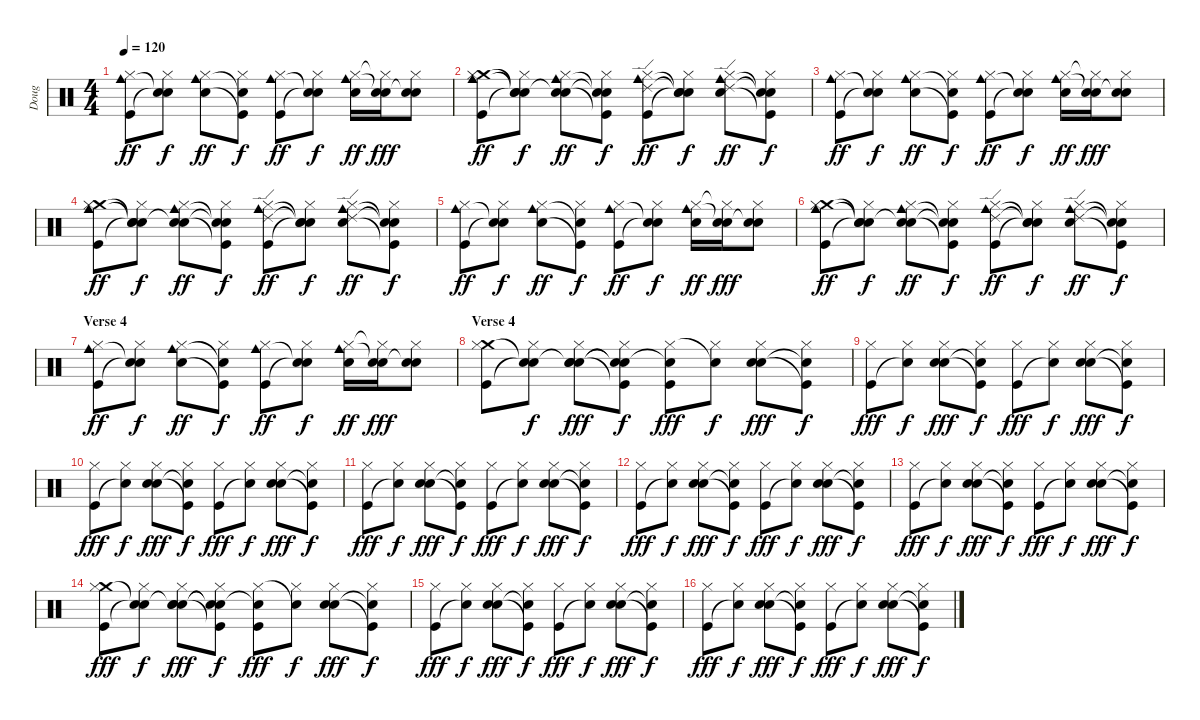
\track ("Doug" "Doug") {instrument percussion}
\staff {score}
\articulation defaults
\ts (4 4)
\tempo 120
\clef neutral
\ks c
("Hi-Hat (closed)" "Kick (hit)" "Cowbell medium (hit)").8{dy ff} ("Hi-Hat (closed)" "Snare (hit)"{t} "Snare (hit)"{t}).8{dy f} ("Hi-Hat (closed)" "Snare (hit) 2" "Cowbell medium (hit)").8{dy ff} ("Hi-Hat (closed)" "Kick (hit)"{t} "Snare (hit)"{t}).8{dy f} ("Hi-Hat (closed)" "Kick (hit)" "Cowbell medium (hit)").8{dy ff} ("Hi-Hat (closed)" "Snare (hit)"{t} "Snare (hit)"{t}).8{dy f} ("Hi-Hat (closed)" "Snare (hit) 2" "Cowbell medium (hit)").16{dy ff} ("Hi-Hat (closed)"{t} "Snare (hit) 2" "Snare (hit)"{t}).16{dy fff} ("Hi-Hat (closed)" "Snare (hit) 2" "Snare (hit)"{t}).8 |
("Crash medium (hit)" "Hi-Hat (closed)" "Kick (hit)" "Cowbell medium (hit)").8{dy ff} ("Snare (hit)"{t} "Hi-Hat (closed)" "Snare (hit)"{t} "Snare (hit)"{t}).8{dy f} ("Snare (hit)"{t} "Hi-Hat (closed)" "Snare (hit) 2" "Cowbell medium (hit)").8{dy ff} ("Snare (hit)"{t} "Hi-Hat (closed)" "Kick (hit)"{t} "Snare (hit)"{t}).8{dy f} ("Ride (edge) 2" "Hi-Hat (closed)" "Kick (hit)" "Cowbell medium (hit)").8{dy ff} ("Snare (hit)"{t} "Hi-Hat (closed)" "Snare (hit)"{t} "Snare (hit)"{t}).8{dy f} ("Ride (edge) 2" "Hi-Hat (closed)" "Snare (hit) 2" "Cowbell medium (hit)").8{dy ff} ("Snare (hit)"{t} "Hi-Hat (closed)" "Kick (hit)"{t} "Snare (hit)"{t}).8{dy f} |
("Hi-Hat (closed)" "Kick (hit)" "Cowbell medium (hit)").8{dy ff} ("Hi-Hat (closed)" "Snare (hit)"{t} "Snare (hit)"{t}).8{dy f} ("Hi-Hat (closed)" "Snare (hit) 2" "Cowbell medium (hit)").8{dy ff} ("Hi-Hat (closed)" "Kick (hit)"{t} "Snare (hit)"{t}).8{dy f} ("Hi-Hat (closed)" "Kick (hit)" "Cowbell medium (hit)").8{dy ff} ("Hi-Hat (closed)" "Snare (hit)"{t} "Snare (hit)"{t}).8{dy f} ("Hi-Hat (closed)" "Snare (hit) 2" "Cowbell medium (hit)").16{dy ff} ("Hi-Hat (closed)"{t} "Snare (hit) 2" "Snare (hit)"{t}).16{dy fff} ("Hi-Hat (closed)" "Snare (hit) 2" "Snare (hit)"{t}).8 |
("Crash medium (hit)" "Hi-Hat (closed)" "Kick (hit)" "Cowbell medium (hit)").8{dy ff} ("Snare (hit)"{t} "Hi-Hat (closed)" "Snare (hit)"{t} "Snare (hit)"{t}).8{dy f} ("Snare (hit)"{t} "Hi-Hat (closed)" "Snare (hit) 2" "Cowbell medium (hit)").8{dy ff} ("Snare (hit)"{t} "Hi-Hat (closed)" "Kick (hit)"{t} "Snare (hit)"{t}).8{dy f} ("Ride (edge) 2" "Hi-Hat (closed)" "Kick (hit)" "Cowbell medium (hit)").8{dy ff} ("Snare (hit)"{t} "Hi-Hat (closed)" "Snare (hit)"{t} "Snare (hit)"{t}).8{dy f} ("Ride (edge) 2" "Hi-Hat (closed)" "Snare (hit) 2" "Cowbell medium (hit)").8{dy ff} ("Snare (hit)"{t} "Hi-Hat (closed)" "Kick (hit)"{t} "Snare (hit)"{t}).8{dy f} |
("Hi-Hat (closed)" "Kick (hit)" "Cowbell medium (hit)").8{dy ff} ("Hi-Hat (closed)" "Snare (hit)"{t} "Snare (hit)"{t}).8{dy f} ("Hi-Hat (closed)" "Snare (hit) 2" "Cowbell medium (hit)").8{dy ff} ("Hi-Hat (closed)" "Kick (hit)"{t} "Snare (hit)"{t}).8{dy f} ("Hi-Hat (closed)" "Kick (hit)" "Cowbell medium (hit)").8{dy ff} ("Hi-Hat (closed)" "Snare (hit)"{t} "Snare (hit)"{t}).8{dy f} ("Hi-Hat (closed)" "Snare (hit) 2" "Cowbell medium (hit)").16{dy ff} ("Hi-Hat (closed)"{t} "Snare (hit) 2" "Snare (hit)"{t}).16{dy fff} ("Hi-Hat (closed)" "Snare (hit) 2" "Snare (hit)"{t}).8 |
("Crash medium (hit)" "Hi-Hat (closed)" "Kick (hit)" "Cowbell medium (hit)").8{dy ff} ("Snare (hit)"{t} "Hi-Hat (closed)" "Snare (hit)"{t} "Snare (hit)"{t}).8{dy f} ("Snare (hit)"{t} "Hi-Hat (closed)" "Snare (hit) 2" "Cowbell medium (hit)").8{dy ff} ("Snare (hit)"{t} "Hi-Hat (closed)" "Kick (hit)"{t} "Snare (hit)"{t}).8{dy f} ("Ride (edge) 2" "Hi-Hat (closed)" "Kick (hit)" "Cowbell medium (hit)").8{dy ff} ("Snare (hit)"{t} "Hi-Hat (closed)" "Snare (hit)"{t} "Snare (hit)"{t}).8{dy f} ("Ride (edge) 2" "Hi-Hat (closed)" "Snare (hit) 2" "Cowbell medium (hit)").8{dy ff} ("Snare (hit)"{t} "Hi-Hat (closed)" "Kick (hit)"{t} "Snare (hit)"{t}).8{dy f} |
\section ("" "Verse 4")
("Hi-Hat (closed)" "Kick (hit)" "Cowbell medium (hit)").8{dy ff} ("Hi-Hat (closed)" "Snare (hit)"{t} "Snare (hit)"{t}).8{dy f} ("Hi-Hat (closed)" "Snare (hit) 2" "Cowbell medium (hit)").8{dy ff} ("Hi-Hat (closed)" "Kick (hit)"{t} "Snare (hit)"{t}).8{dy f} ("Hi-Hat (closed)" "Kick (hit)" "Cowbell medium (hit)").8{dy ff} ("Hi-Hat (closed)" "Snare (hit)"{t} "Snare (hit)"{t}).8{dy f} ("Hi-Hat (closed)" "Snare (hit) 2" "Cowbell medium (hit)").16{dy ff} ("Hi-Hat (closed)"{t} "Snare (hit) 2" "Snare (hit)"{t}).16{dy fff} ("Hi-Hat (closed)" "Snare (hit) 2" "Snare (hit)"{t}).8 |
\section ("" "Verse 4")
("Crash medium (hit)" "Hi-Hat (closed)" "Kick (hit)").8 ("Snare (hit)"{t} "Hi-Hat (closed)" "Snare (hit)"{t}).8{dy f} ("Snare (hit)"{t} "Hi-Hat (closed)" "Snare (hit) 2" "Hand Clap (hit)").8{dy fff} ("Snare (hit)"{t} "Hi-Hat (closed)" "Kick (hit)"{t} "Snare (hit)"{t}).8{dy f} ("Snare (hit)"{t} "Hi-Hat (closed)" "Kick (hit)").8{dy fff} ("Hi-Hat (closed)" "Snare (hit)"{t}).8{dy f} ("Hi-Hat (closed)" "Snare (hit) 2" "Hand Clap (hit)").8{dy fff} ("Hi-Hat (closed)" "Kick (hit)"{t} "Snare (hit)"{t}).8{dy f} |
("Hi-Hat (closed)" "Kick (hit)").8{dy fff} ("Hi-Hat (closed)" "Snare (hit)"{t}).8{dy f} ("Hand Clap (hit)" "Hi-Hat (closed)" "Snare (hit) 2").8{dy fff} ("Snare (hit)"{t} "Hi-Hat (closed)" "Kick (hit)"{t}).8{dy f} ("Hi-Hat (closed)" "Kick (hit)").8{dy fff} ("Hi-Hat (closed)" "Snare (hit)"{t}).8{dy f} ("Hand Clap (hit)" "Hi-Hat (closed)" "Snare (hit) 2").8{dy fff} ("Snare (hit)"{t} "Hi-Hat (closed)" "Kick (hit)"{t}).8{dy f} |
("Hi-Hat (closed)" "Kick (hit)").8{dy fff} ("Hi-Hat (closed)" "Snare (hit)"{t}).8{dy f} ("Hand Clap (hit)" "Hi-Hat (closed)" "Snare (hit) 2").8{dy fff} ("Snare (hit)"{t} "Hi-Hat (closed)" "Kick (hit)"{t}).8{dy f} ("Hi-Hat (closed)" "Kick (hit)").8{dy fff} ("Hi-Hat (closed)" "Snare (hit)"{t}).8{dy f} ("Hand Clap (hit)" "Hi-Hat (closed)" "Snare (hit) 2").8{dy fff} ("Snare (hit)"{t} "Hi-Hat (closed)" "Kick (hit)"{t}).8{dy f} |
("Hi-Hat (closed)" "Kick (hit)").8{dy fff} ("Hi-Hat (closed)" "Snare (hit)"{t}).8{dy f} ("Hand Clap (hit)" "Hi-Hat (closed)" "Snare (hit) 2").8{dy fff} ("Snare (hit)"{t} "Hi-Hat (closed)" "Kick (hit)"{t}).8{dy f} ("Hi-Hat (closed)" "Kick (hit)").8{dy fff} ("Hi-Hat (closed)" "Snare (hit)"{t}).8{dy f} ("Hand Clap (hit)" "Hi-Hat (closed)" "Snare (hit) 2").8{dy fff} ("Snare (hit)"{t} "Hi-Hat (closed)" "Kick (hit)"{t}).8{dy f} |
("Hi-Hat (closed)" "Kick (hit)").8{dy fff} ("Hi-Hat (closed)" "Snare (hit)"{t}).8{dy f} ("Hand Clap (hit)" "Hi-Hat (closed)" "Snare (hit) 2").8{dy fff} ("Snare (hit)"{t} "Hi-Hat (closed)" "Kick (hit)"{t}).8{dy f} ("Hi-Hat (closed)" "Kick (hit)").8{dy fff} ("Hi-Hat (closed)" "Snare (hit)"{t}).8{dy f} ("Hand Clap (hit)" "Hi-Hat (closed)" "Snare (hit) 2").8{dy fff} ("Snare (hit)"{t} "Hi-Hat (closed)" "Kick (hit)"{t}).8{dy f} |
("Hi-Hat (closed)" "Kick (hit)").8{dy fff} ("Hi-Hat (closed)" "Snare (hit)"{t}).8{dy f} ("Hand Clap (hit)" "Hi-Hat (closed)" "Snare (hit) 2").8{dy fff} ("Snare (hit)"{t} "Hi-Hat (closed)" "Kick (hit)"{t}).8{dy f} ("Hi-Hat (closed)" "Kick (hit)").8{dy fff} ("Hi-Hat (closed)" "Snare (hit)"{t}).8{dy f} ("Hand Clap (hit)" "Hi-Hat (closed)" "Snare (hit) 2").8{dy fff} ("Snare (hit)"{t} "Hi-Hat (closed)" "Kick (hit)"{t}).8{dy f} |
("Crash medium (hit)" "Hi-Hat (closed)" "Kick (hit)").8{dy fff} ("Snare (hit)"{t} "Hi-Hat (closed)" "Snare (hit)"{t}).8{dy f} ("Snare (hit)"{t} "Hi-Hat (closed)" "Snare (hit) 2" "Hand Clap (hit)").8{dy fff} ("Snare (hit)"{t} "Hi-Hat (closed)" "Kick (hit)"{t} "Snare (hit)"{t}).8{dy f} ("Snare (hit)"{t} "Hi-Hat (closed)" "Kick (hit)").8{dy fff} ("Hi-Hat (closed)" "Snare (hit)"{t}).8{dy f} ("Hi-Hat (closed)" "Snare (hit) 2" "Hand Clap (hit)").8{dy fff} ("Hi-Hat (closed)" "Kick (hit)"{t} "Snare (hit)"{t}).8{dy f} |
("Hi-Hat (closed)" "Kick (hit)").8{dy fff} ("Hi-Hat (closed)" "Snare (hit)"{t}).8{dy f} ("Hand Clap (hit)" "Hi-Hat (closed)" "Snare (hit) 2").8{dy fff} ("Snare (hit)"{t} "Hi-Hat (closed)" "Kick (hit)"{t}).8{dy f} ("Hi-Hat (closed)" "Kick (hit)").8{dy fff} ("Hi-Hat (closed)" "Snare (hit)"{t}).8{dy f} ("Hand Clap (hit)" "Hi-Hat (closed)" "Snare (hit) 2").8{dy fff} ("Snare (hit)"{t} "Hi-Hat (closed)" "Kick (hit)"{t}).8{dy f} |
("Hi-Hat (closed)" "Kick (hit)").8{dy fff} ("Hi-Hat (closed)" "Snare (hit)"{t}).8{dy f} ("Hand Clap (hit)" "Hi-Hat (closed)" "Snare (hit) 2").8{dy fff} ("Snare (hit)"{t} "Hi-Hat (closed)" "Kick (hit)"{t}).8{dy f} ("Hi-Hat (closed)" "Kick (hit)").8{dy fff} ("Hi-Hat (closed)" "Snare (hit)"{t}).8{dy f} ("Hand Clap (hit)" "Hi-Hat (closed)" "Snare (hit) 2").8{dy fff} ("Snare (hit)"{t} "Hi-Hat (closed)" "Kick (hit)"{t}).8{dy f}
